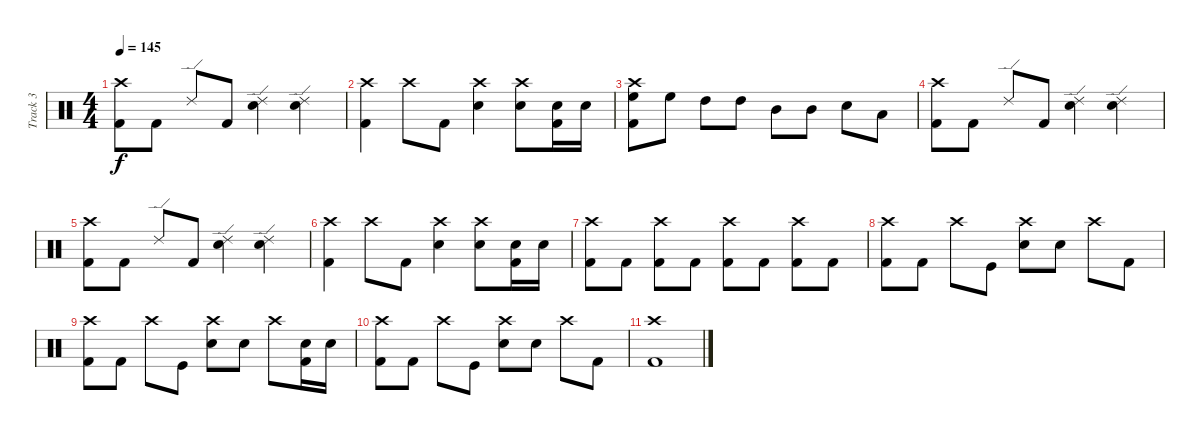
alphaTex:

\track ("Track 3" "Track 3") {instrument percussion}
\staff {score}
\articulation defaults
\ts (4 4)
\tempo 145
\clef neutral
\ks c
("Crash high (hit)" "Kick (hit) 2").8{dy f} "Kick (hit) 2".8 "Ride (edge) 2".8 "Kick (hit) 2".8 ("Ride (edge) 2" "Electric Snare (hit)").4 ("Ride (edge) 2" "Electric Snare (hit)").4 |
("Crash high (hit)" "Kick (hit) 2").4 "Crash high (hit)".8 "Kick (hit) 2".8 ("Crash high (hit)" "Electric Snare (hit)").4 ("Crash high (hit)" "Electric Snare (hit)").8 ("Kick (hit) 2" "Electric Snare (hit)").16 "Electric Snare (hit)".16 |
("Crash high (hit)" "Kick (hit) 2" "High Floor Tom (hit)").8 "High Floor Tom (hit)".8 "High Tom (hit)".8 "High Tom (hit)".8 "Mid Tom (hit)".8 "Mid Tom (hit)".8 "Electric Snare (hit)".8 "Low Tom (hit)".8 |
("Crash high (hit)" "Kick (hit) 2").8 "Kick (hit) 2".8 "Ride (edge) 2".8 "Kick (hit) 2".8 ("Ride (edge) 2" "Electric Snare (hit)").4 ("Ride (edge) 2" "Electric Snare (hit)").4 |
("Crash high (hit)" "Kick (hit) 2").8 "Kick (hit) 2".8 "Ride (edge) 2".8 "Kick (hit) 2".8 ("Ride (edge) 2" "Electric Snare (hit)").4 ("Ride (edge) 2" "Electric Snare (hit)").4 |
("Crash high (hit)" "Kick (hit) 2").4 "Crash high (hit)".8 "Kick (hit) 2".8 ("Crash high (hit)" "Electric Snare (hit)").4 ("Crash high (hit)" "Electric Snare (hit)").8 ("Kick (hit) 2" "Electric Snare (hit)").16 "Electric Snare (hit)".16 |
("Crash high (hit)" "Kick (hit) 2").8 "Kick (hit) 2".8 ("Crash high (hit)" "Kick (hit) 2").8 "Kick (hit) 2".8 ("Crash high (hit)" "Kick (hit) 2").8 "Kick (hit) 2".8 ("Crash high (hit)" "Kick (hit) 2").8 "Kick (hit) 2".8 |
("Kick (hit) 2" "Crash high (hit)").8 "Kick (hit) 2".8 "Crash high (hit)".8 "Kick (hit)".8 ("Crash high (hit)" "Electric Snare (hit)").8 "Electric Snare (hit)".8 "Crash high (hit)".8 "Kick (hit) 2".8 |
("Kick (hit) 2" "Crash high (hit)").8 "Kick (hit) 2".8 "Crash high (hit)".8 "Kick (hit)".8 ("Crash high (hit)" "Electric Snare (hit)").8 "Electric Snare (hit)".8 "Crash high (hit)".8 ("Kick (hit) 2" "Electric Snare (hit)").16 "Electric Snare (hit)".16 |
("Kick (hit) 2" "Crash high (hit)").8 "Kick (hit) 2".8 "Crash high (hit)".8 "Kick (hit)".8 ("Crash high (hit)" "Electric Snare (hit)").8 "Electric Snare (hit)".8 "Crash high (hit)".8 "Kick (hit) 2".8 |
("Crash high (hit)" "Kick (hit) 2").1
